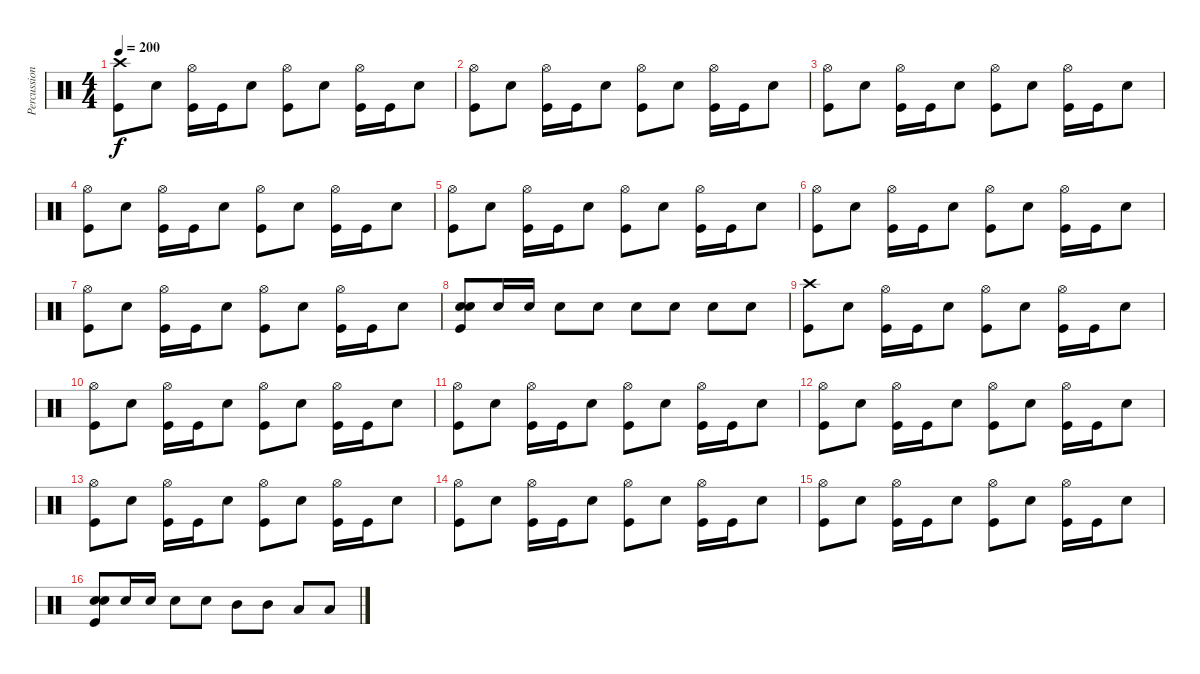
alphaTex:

\track ("Percussion" "Percussion") {instrument percussion}
\staff {score}
\articulation defaults
\ts (4 4)
\tempo 200
\clef neutral
\ks c
("Crash high (hit)" "Kick (hit)").8{dy f} "Snare (hit) 2".8 ("Hi-Hat (open)" "Kick (hit)").16 "Kick (hit)".16 "Snare (hit) 2".8 ("Hi-Hat (open)" "Kick (hit)").8 "Snare (hit) 2".8 ("Hi-Hat (open)" "Kick (hit)").16 "Kick (hit)".16 "Snare (hit) 2".8 |
("Hi-Hat (open)" "Kick (hit)").8 "Snare (hit) 2".8 ("Hi-Hat (open)" "Kick (hit)").16 "Kick (hit)".16 "Snare (hit) 2".8 ("Hi-Hat (open)" "Kick (hit)").8 "Snare (hit) 2".8 ("Hi-Hat (open)" "Kick (hit)").16 "Kick (hit)".16 "Snare (hit) 2".8 |
("Hi-Hat (open)" "Kick (hit)").8 "Snare (hit) 2".8 ("Hi-Hat (open)" "Kick (hit)").16 "Kick (hit)".16 "Snare (hit) 2".8 ("Hi-Hat (open)" "Kick (hit)").8 "Snare (hit) 2".8 ("Hi-Hat (open)" "Kick (hit)").16 "Kick (hit)".16 "Snare (hit) 2".8 |
("Hi-Hat (open)" "Kick (hit)").8 "Snare (hit) 2".8 ("Hi-Hat (open)" "Kick (hit)").16 "Kick (hit)".16 "Snare (hit) 2".8 ("Hi-Hat (open)" "Kick (hit)").8 "Snare (hit) 2".8 ("Hi-Hat (open)" "Kick (hit)").16 "Kick (hit)".16 "Snare (hit) 2".8 |
("Hi-Hat (open)" "Kick (hit)").8 "Snare (hit) 2".8 ("Hi-Hat (open)" "Kick (hit)").16 "Kick (hit)".16 "Snare (hit) 2".8 ("Hi-Hat (open)" "Kick (hit)").8 "Snare (hit) 2".8 ("Hi-Hat (open)" "Kick (hit)").16 "Kick (hit)".16 "Snare (hit) 2".8 |
("Hi-Hat (open)" "Kick (hit)").8 "Snare (hit) 2".8 ("Hi-Hat (open)" "Kick (hit)").16 "Kick (hit)".16 "Snare (hit) 2".8 ("Hi-Hat (open)" "Kick (hit)").8 "Snare (hit) 2".8 ("Hi-Hat (open)" "Kick (hit)").16 "Kick (hit)".16 "Snare (hit) 2".8 |
("Hi-Hat (open)" "Kick (hit)").8 "Snare (hit) 2".8 ("Hi-Hat (open)" "Kick (hit)").16 "Kick (hit)".16 "Snare (hit) 2".8 ("Hi-Hat (open)" "Kick (hit)").8 "Snare (hit) 2".8 ("Hi-Hat (open)" "Kick (hit)").16 "Kick (hit)".16 "Snare (hit) 2".8 |
("Snare (hit) 2" "Snare (hit) 2" "Kick (hit)").8 "Snare (hit) 2".16 "Snare (hit) 2".16 "Snare (hit) 2".8 "Snare (hit) 2".8 "Snare (hit) 2".8 "Snare (hit) 2".8 "Snare (hit) 2".8 "Snare (hit) 2".8 |
("Crash high (hit)" "Kick (hit)").8 "Snare (hit) 2".8 ("Hi-Hat (open)" "Kick (hit)").16 "Kick (hit)".16 "Snare (hit) 2".8 ("Hi-Hat (open)" "Kick (hit)").8 "Snare (hit) 2".8 ("Hi-Hat (open)" "Kick (hit)").16 "Kick (hit)".16 "Snare (hit) 2".8 |
("Hi-Hat (open)" "Kick (hit)").8 "Snare (hit) 2".8 ("Hi-Hat (open)" "Kick (hit)").16 "Kick (hit)".16 "Snare (hit) 2".8 ("Hi-Hat (open)" "Kick (hit)").8 "Snare (hit) 2".8 ("Hi-Hat (open)" "Kick (hit)").16 "Kick (hit)".16 "Snare (hit) 2".8 |
("Hi-Hat (open)" "Kick (hit)").8 "Snare (hit) 2".8 ("Hi-Hat (open)" "Kick (hit)").16 "Kick (hit)".16 "Snare (hit) 2".8 ("Hi-Hat (open)" "Kick (hit)").8 "Snare (hit) 2".8 ("Hi-Hat (open)" "Kick (hit)").16 "Kick (hit)".16 "Snare (hit) 2".8 |
("Hi-Hat (open)" "Kick (hit)").8 "Snare (hit) 2".8 ("Hi-Hat (open)" "Kick (hit)").16 "Kick (hit)".16 "Snare (hit) 2".8 ("Hi-Hat (open)" "Kick (hit)").8 "Snare (hit) 2".8 ("Hi-Hat (open)" "Kick (hit)").16 "Kick (hit)".16 "Snare (hit) 2".8 |
("Hi-Hat (open)" "Kick (hit)").8 "Snare (hit) 2".8 ("Hi-Hat (open)" "Kick (hit)").16 "Kick (hit)".16 "Snare (hit) 2".8 ("Hi-Hat (open)" "Kick (hit)").8 "Snare (hit) 2".8 ("Hi-Hat (open)" "Kick (hit)").16 "Kick (hit)".16 "Snare (hit) 2".8 |
("Hi-Hat (open)" "Kick (hit)").8 "Snare (hit) 2".8 ("Hi-Hat (open)" "Kick (hit)").16 "Kick (hit)".16 "Snare (hit) 2".8 ("Hi-Hat (open)" "Kick (hit)").8 "Snare (hit) 2".8 ("Hi-Hat (open)" "Kick (hit)").16 "Kick (hit)".16 "Snare (hit) 2".8 |
("Hi-Hat (open)" "Kick (hit)").8 "Snare (hit) 2".8 ("Hi-Hat (open)" "Kick (hit)").16 "Kick (hit)".16 "Snare (hit) 2".8 ("Hi-Hat (open)" "Kick (hit)").8 "Snare (hit) 2".8 ("Hi-Hat (open)" "Kick (hit)").16 "Kick (hit)".16 "Snare (hit) 2".8 |
("Snare (hit) 2" "Snare (hit) 2" "Kick (hit)").8 "Snare (hit) 2".16 "Snare (hit) 2".16 "Snare (hit) 2".8 "Snare (hit) 2".8 "Mid Tom (hit)".8 "Mid Tom (hit)".8 "Low Tom (hit)".8 "Low Tom (hit)".8
